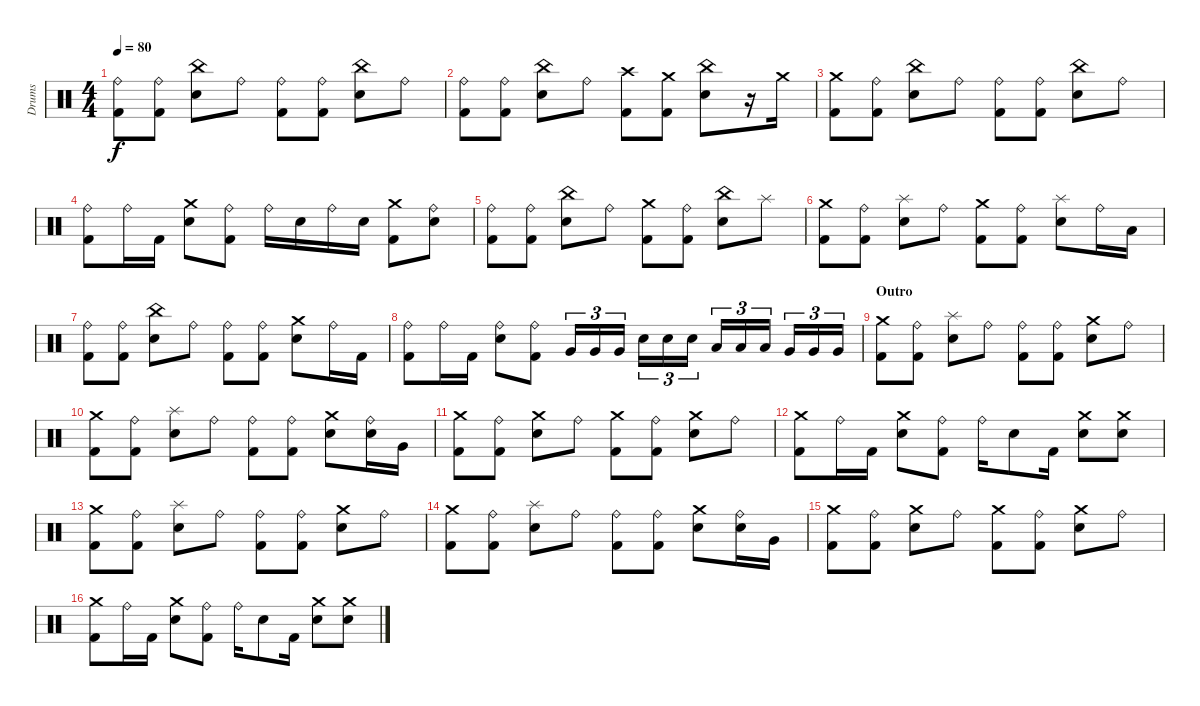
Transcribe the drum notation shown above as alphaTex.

\track ("Drums" "Drums") {instrument percussion}
\staff {score}
\articulation defaults
\ts (4 4)
\tempo 80
\clef neutral
\ks c
("Ride (bell)" "Kick (hit) 2").8{dy f} ("Ride (bell)" "Kick (hit) 2").8 ("China (hit)" "Snare (hit) 2").8 "Ride (bell)".8 ("Ride (bell)" "Kick (hit) 2").8 ("Ride (bell)" "Kick (hit) 2").8 ("China (hit)" "Snare (hit) 2").8 "Ride (bell)".8 |
("Ride (bell)" "Kick (hit) 2").8 ("Ride (bell)" "Kick (hit) 2").8 ("China (hit)" "Snare (hit) 2").8 "Ride (bell)".8 ("Crash high (hit)" "Kick (hit) 2").8 ("Crash medium (hit)" "Kick (hit) 2").8 ("China (hit)" "Snare (hit) 2").8 r.16 "Crash medium (hit)".16 |
("Crash medium (hit)" "Kick (hit) 2").8 ("Ride (bell)" "Kick (hit) 2").8 ("China (hit)" "Snare (hit) 2").8 "Ride (bell)".8 ("Ride (bell)" "Kick (hit) 2").8 ("Ride (bell)" "Kick (hit) 2").8 ("China (hit)" "Snare (hit) 2").8 "Ride (bell)".8 |
("Ride (bell)" "Kick (hit) 2").8 "Ride (bell)".16 "Kick (hit) 2".16 ("Crash medium (hit)" "Snare (hit) 2").8 ("Ride (bell)" "Kick (hit) 2").8 "Ride (bell)".16 "Snare (hit) 2".16 "Ride (bell)".16 "Snare (hit) 2".16 ("Crash medium (hit)" "Kick (hit) 2").8 ("Ride (bell)" "Snare (hit) 2").8 |
("Ride (bell)" "Kick (hit) 2").8 ("Ride (bell)" "Kick (hit) 2").8 ("China (hit)" "Snare (hit) 2").8 "Ride (bell)".8 ("Crash medium (hit)" "Kick (hit) 2").8 ("Ride (bell)" "Kick (hit) 2").8 ("China (hit)" "Snare (hit) 2").8 "Splash (hit)".8 |
("Crash medium (hit)" "Kick (hit) 2").8 ("Ride (bell)" "Kick (hit) 2").8 ("Splash (hit)" "Snare (hit) 2").8 "Ride (bell)".8 ("Crash medium (hit)" "Kick (hit) 2").8 ("Ride (bell)" "Kick (hit) 2").8 ("Splash (hit)" "Snare (hit) 2").8 "Ride (bell)".16 "Low Tom (hit)".16 |
("Ride (bell)" "Kick (hit) 2").8 ("Ride (bell)" "Kick (hit) 2").8 ("China (hit)" "Snare (hit) 2").8 "Ride (bell)".8 ("Ride (bell)" "Kick (hit) 2").8 ("Ride (bell)" "Kick (hit) 2").8 ("Crash medium (hit)" "Snare (hit) 2").8 "Ride (bell)".16 "Kick (hit) 2".16 |
("Ride (bell)" "Kick (hit) 2").8 "Ride (bell)".16 "Kick (hit) 2".16 ("Ride (bell)" "Snare (hit) 2").8 ("Ride (bell)" "Kick (hit) 2").8 "Very Low Tom (hit)".16{tu (3 2)} "Very Low Tom (hit)".16{tu (3 2)} "Very Low Tom (hit)".16{tu (3 2)} "Snare (hit) 2".16{tu (3 2)} "Snare (hit) 2".16{tu (3 2)} "Snare (hit) 2".16{tu (3 2)} "Low Tom (hit)".16{tu (3 2)} "Low Tom (hit)".16{tu (3 2)} "Low Tom (hit)".16{tu (3 2)} "Very Low Tom (hit)".16{tu (3 2)} "Very Low Tom (hit)".16{tu (3 2)} "Very Low Tom (hit)".16{tu (3 2)} |
\section ("" "Outro")
("Crash medium (hit)" "Kick (hit) 2").8{volume 11} ("Ride (bell)" "Kick (hit) 2").8 ("Splash (hit)" "Snare (hit) 2").8 "Ride (bell)".8 ("Ride (bell)" "Kick (hit) 2").8 ("Ride (bell)" "Kick (hit) 2").8 ("Crash medium (hit)" "Snare (hit) 2").8 "Ride (bell)".8 |
("Crash medium (hit)" "Kick (hit) 2").8 ("Ride (bell)" "Kick (hit) 2").8 ("Splash (hit)" "Snare (hit) 2").8 "Ride (bell)".8 ("Ride (bell)" "Kick (hit) 2").8 ("Ride (bell)" "Kick (hit) 2").8 ("Crash medium (hit)" "Snare (hit) 2").8 ("Ride (bell)" "Snare (hit) 2").16 "Very Low Tom (hit)".16 |
("Crash medium (hit)" "Kick (hit) 2").8 ("Ride (bell)" "Kick (hit) 2").8 ("Crash medium (hit)" "Snare (hit) 2").8 "Ride (bell)".8 ("Crash medium (hit)" "Kick (hit) 2").8 ("Ride (bell)" "Kick (hit) 2").8 ("Crash medium (hit)" "Snare (hit) 2").8 "Ride (bell)".8 |
("Crash medium (hit)" "Kick (hit) 2").8 "Ride (bell)".16 "Kick (hit) 2".16 ("Crash medium (hit)" "Snare (hit) 2").8 ("Ride (bell)" "Kick (hit) 2").8 "Ride (bell)".16 "Snare (hit) 2".8 "Kick (hit) 2".16 ("Crash medium (hit)" "Snare (hit) 2").8 ("Crash medium (hit)" "Snare (hit) 2").8 |
("Crash medium (hit)" "Kick (hit) 2").8{volume 8} ("Ride (bell)" "Kick (hit) 2").8 ("Splash (hit)" "Snare (hit) 2").8 "Ride (bell)".8 ("Ride (bell)" "Kick (hit) 2").8 ("Ride (bell)" "Kick (hit) 2").8 ("Crash medium (hit)" "Snare (hit) 2").8 "Ride (bell)".8 |
("Crash medium (hit)" "Kick (hit) 2").8 ("Ride (bell)" "Kick (hit) 2").8 ("Splash (hit)" "Snare (hit) 2").8 "Ride (bell)".8 ("Ride (bell)" "Kick (hit) 2").8 ("Ride (bell)" "Kick (hit) 2").8 ("Crash medium (hit)" "Snare (hit) 2").8 ("Ride (bell)" "Snare (hit) 2").16 "Very Low Tom (hit)".16 |
("Crash medium (hit)" "Kick (hit) 2").8{volume 0} ("Ride (bell)" "Kick (hit) 2").8 ("Crash medium (hit)" "Snare (hit) 2").8 "Ride (bell)".8 ("Crash medium (hit)" "Kick (hit) 2").8 ("Ride (bell)" "Kick (hit) 2").8 ("Crash medium (hit)" "Snare (hit) 2").8 "Ride (bell)".8 |
("Crash medium (hit)" "Kick (hit) 2").8 "Ride (bell)".16 "Kick (hit) 2".16 ("Crash medium (hit)" "Snare (hit) 2").8 ("Ride (bell)" "Kick (hit) 2").8 "Ride (bell)".16 "Snare (hit) 2".8 "Kick (hit) 2".16 ("Crash medium (hit)" "Snare (hit) 2").8 ("Crash medium (hit)" "Snare (hit) 2").8
